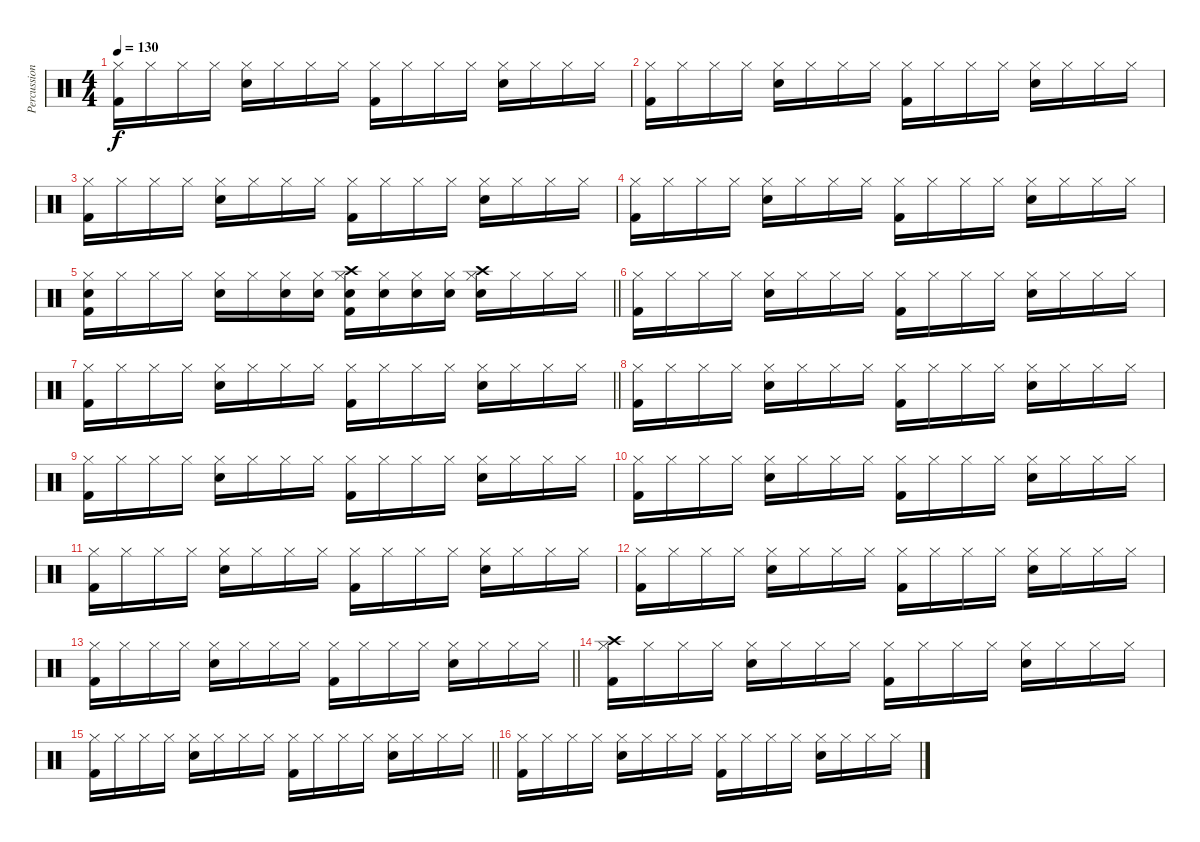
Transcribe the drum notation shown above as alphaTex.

\track ("Percussion" "Percussion") {instrument percussion}
\staff {score}
\articulation defaults
\ts (4 4)
\tempo 130
\clef neutral
\ks c
("Kick (hit) 2" "Hi-Hat (closed)").16{dy f} "Hi-Hat (closed)".16 "Hi-Hat (closed)".16 "Hi-Hat (closed)".16 ("Snare (hit) 2" "Hi-Hat (closed)").16 "Hi-Hat (closed)".16 "Hi-Hat (closed)".16 "Hi-Hat (closed)".16 ("Kick (hit) 2" "Hi-Hat (closed)").16 "Hi-Hat (closed)".16 "Hi-Hat (closed)".16 "Hi-Hat (closed)".16 ("Snare (hit) 2" "Hi-Hat (closed)").16 "Hi-Hat (closed)".16 "Hi-Hat (closed)".16 "Hi-Hat (closed)".16 |
("Hi-Hat (closed)" "Kick (hit) 2").16 "Hi-Hat (closed)".16 "Hi-Hat (closed)".16 "Hi-Hat (closed)".16 ("Snare (hit) 2" "Hi-Hat (closed)").16 "Hi-Hat (closed)".16 "Hi-Hat (closed)".16 "Hi-Hat (closed)".16 ("Kick (hit) 2" "Hi-Hat (closed)").16 "Hi-Hat (closed)".16 "Hi-Hat (closed)".16 "Hi-Hat (closed)".16 ("Snare (hit) 2" "Hi-Hat (closed)").16 "Hi-Hat (closed)".16 "Hi-Hat (closed)".16 "Hi-Hat (closed)".16 |
("Hi-Hat (closed)" "Kick (hit) 2").16 "Hi-Hat (closed)".16 "Hi-Hat (closed)".16 "Hi-Hat (closed)".16 ("Snare (hit) 2" "Hi-Hat (closed)").16 "Hi-Hat (closed)".16 "Hi-Hat (closed)".16 "Hi-Hat (closed)".16 ("Hi-Hat (closed)" "Kick (hit) 2").16 "Hi-Hat (closed)".16 "Hi-Hat (closed)".16 "Hi-Hat (closed)".16 ("Snare (hit) 2" "Hi-Hat (closed)").16 "Hi-Hat (closed)".16 "Hi-Hat (closed)".16 "Hi-Hat (closed)".16 |
("Hi-Hat (closed)" "Kick (hit) 2").16 "Hi-Hat (closed)".16 "Hi-Hat (closed)".16 "Hi-Hat (closed)".16 ("Hi-Hat (closed)" "Snare (hit) 2").16 "Hi-Hat (closed)".16 "Hi-Hat (closed)".16 "Hi-Hat (closed)".16 ("Kick (hit) 2" "Hi-Hat (closed)").16 "Hi-Hat (closed)".16 "Hi-Hat (closed)".16 "Hi-Hat (closed)".16 ("Hi-Hat (closed)" "Snare (hit) 2").16 "Hi-Hat (closed)".16 "Hi-Hat (closed)".16 "Hi-Hat (closed)".16 |
\barLineRight lightlight
("Snare (hit) 2" "Hi-Hat (closed)" "Kick (hit) 2").16 "Hi-Hat (closed)".16 "Hi-Hat (closed)".16 "Hi-Hat (closed)".16 ("Snare (hit) 2" "Hi-Hat (closed)").16 "Hi-Hat (closed)".16 ("Hi-Hat (closed)" "Snare (hit) 2").16 ("Hi-Hat (closed)" "Snare (hit) 2").16 ("Crash high (hit)" "Kick (hit) 2" "Hi-Hat (closed)" "Snare (hit) 2").16 ("Snare (hit) 2" "Hi-Hat (closed)").16 ("Hi-Hat (closed)" "Snare (hit) 2").16 ("Hi-Hat (closed)" "Snare (hit) 2").16 ("Snare (hit) 2" "Crash high (hit)" "Hi-Hat (closed)").16 "Hi-Hat (closed)".16 "Hi-Hat (closed)".16 "Hi-Hat (closed)".16 |
("Kick (hit) 2" "Hi-Hat (closed)").16 "Hi-Hat (closed)".16 "Hi-Hat (closed)".16 "Hi-Hat (closed)".16 ("Hi-Hat (closed)" "Snare (hit) 2").16 "Hi-Hat (closed)".16 "Hi-Hat (closed)".16 "Hi-Hat (closed)".16 ("Kick (hit) 2" "Hi-Hat (closed)").16 "Hi-Hat (closed)".16 "Hi-Hat (closed)".16 "Hi-Hat (closed)".16 ("Hi-Hat (closed)" "Snare (hit) 2").16 "Hi-Hat (closed)".16 "Hi-Hat (closed)".16 "Hi-Hat (closed)".16 |
\barLineRight lightlight
("Kick (hit) 2" "Hi-Hat (closed)").16 "Hi-Hat (closed)".16 "Hi-Hat (closed)".16 "Hi-Hat (closed)".16 ("Snare (hit) 2" "Hi-Hat (closed)").16 "Hi-Hat (closed)".16 "Hi-Hat (closed)".16 "Hi-Hat (closed)".16 ("Hi-Hat (closed)" "Kick (hit) 2").16 "Hi-Hat (closed)".16 "Hi-Hat (closed)".16 "Hi-Hat (closed)".16 ("Hi-Hat (closed)" "Snare (hit) 2").16 "Hi-Hat (closed)".16 "Hi-Hat (closed)".16 "Hi-Hat (closed)".16 |
("Kick (hit) 2" "Hi-Hat (closed)").16 "Hi-Hat (closed)".16 "Hi-Hat (closed)".16 "Hi-Hat (closed)".16 ("Snare (hit) 2" "Hi-Hat (closed)").16 "Hi-Hat (closed)".16 "Hi-Hat (closed)".16 "Hi-Hat (closed)".16 ("Hi-Hat (closed)" "Kick (hit) 2").16 "Hi-Hat (closed)".16 "Hi-Hat (closed)".16 "Hi-Hat (closed)".16 ("Hi-Hat (closed)" "Snare (hit) 2").16 "Hi-Hat (closed)".16 "Hi-Hat (closed)".16 "Hi-Hat (closed)".16 |
("Kick (hit) 2" "Hi-Hat (closed)").16 "Hi-Hat (closed)".16 "Hi-Hat (closed)".16 "Hi-Hat (closed)".16 ("Hi-Hat (closed)" "Snare (hit) 2").16 "Hi-Hat (closed)".16 "Hi-Hat (closed)".16 "Hi-Hat (closed)".16 ("Kick (hit) 2" "Hi-Hat (closed)").16 "Hi-Hat (closed)".16 "Hi-Hat (closed)".16 "Hi-Hat (closed)".16 ("Hi-Hat (closed)" "Snare (hit) 2").16 "Hi-Hat (closed)".16 "Hi-Hat (closed)".16 "Hi-Hat (closed)".16 |
("Hi-Hat (closed)" "Kick (hit) 2").16 "Hi-Hat (closed)".16 "Hi-Hat (closed)".16 "Hi-Hat (closed)".16 ("Snare (hit) 2" "Hi-Hat (closed)").16 "Hi-Hat (closed)".16 "Hi-Hat (closed)".16 "Hi-Hat (closed)".16 ("Hi-Hat (closed)" "Kick (hit) 2").16 "Hi-Hat (closed)".16 "Hi-Hat (closed)".16 "Hi-Hat (closed)".16 ("Snare (hit) 2" "Hi-Hat (closed)").16 "Hi-Hat (closed)".16 "Hi-Hat (closed)".16 "Hi-Hat (closed)".16 |
("Hi-Hat (closed)" "Kick (hit) 2").16 "Hi-Hat (closed)".16 "Hi-Hat (closed)".16 "Hi-Hat (closed)".16 ("Hi-Hat (closed)" "Snare (hit) 2").16 "Hi-Hat (closed)".16 "Hi-Hat (closed)".16 "Hi-Hat (closed)".16 ("Kick (hit) 2" "Hi-Hat (closed)").16 "Hi-Hat (closed)".16 "Hi-Hat (closed)".16 "Hi-Hat (closed)".16 ("Hi-Hat (closed)" "Snare (hit) 2").16 "Hi-Hat (closed)".16 "Hi-Hat (closed)".16 "Hi-Hat (closed)".16 |
("Kick (hit) 2" "Hi-Hat (closed)").16 "Hi-Hat (closed)".16 "Hi-Hat (closed)".16 "Hi-Hat (closed)".16 ("Snare (hit) 2" "Hi-Hat (closed)").16 "Hi-Hat (closed)".16 "Hi-Hat (closed)".16 "Hi-Hat (closed)".16 ("Hi-Hat (closed)" "Kick (hit) 2").16 "Hi-Hat (closed)".16 "Hi-Hat (closed)".16 "Hi-Hat (closed)".16 ("Hi-Hat (closed)" "Snare (hit) 2").16 "Hi-Hat (closed)".16 "Hi-Hat (closed)".16 "Hi-Hat (closed)".16 |
\barLineRight lightlight
("Kick (hit) 2" "Hi-Hat (closed)").16 "Hi-Hat (closed)".16 "Hi-Hat (closed)".16 "Hi-Hat (closed)".16 ("Snare (hit) 2" "Hi-Hat (closed)").16 "Hi-Hat (closed)".16 "Hi-Hat (closed)".16 "Hi-Hat (closed)".16 ("Kick (hit) 2" "Hi-Hat (closed)").16 "Hi-Hat (closed)".16 "Hi-Hat (closed)".16 "Hi-Hat (closed)".16 ("Hi-Hat (closed)" "Snare (hit) 2").16 "Hi-Hat (closed)".16 "Hi-Hat (closed)".16 "Hi-Hat (closed)".16 |
("Kick (hit) 2" "Hi-Hat (closed)" "Crash high (hit)").16 "Hi-Hat (closed)".16 "Hi-Hat (closed)".16 "Hi-Hat (closed)".16 ("Snare (hit) 2" "Hi-Hat (closed)").16 "Hi-Hat (closed)".16 "Hi-Hat (closed)".16 "Hi-Hat (closed)".16 ("Kick (hit) 2" "Hi-Hat (closed)").16 "Hi-Hat (closed)".16 "Hi-Hat (closed)".16 "Hi-Hat (closed)".16 ("Hi-Hat (closed)" "Snare (hit) 2").16 "Hi-Hat (closed)".16 "Hi-Hat (closed)".16 "Hi-Hat (closed)".16 |
\barLineRight lightlight
("Kick (hit) 2" "Hi-Hat (closed)").16 "Hi-Hat (closed)".16 "Hi-Hat (closed)".16 "Hi-Hat (closed)".16 ("Hi-Hat (closed)" "Snare (hit) 2").16 "Hi-Hat (closed)".16 "Hi-Hat (closed)".16 "Hi-Hat (closed)".16 ("Hi-Hat (closed)" "Kick (hit) 2").16 "Hi-Hat (closed)".16 "Hi-Hat (closed)".16 "Hi-Hat (closed)".16 ("Hi-Hat (closed)" "Snare (hit) 2").16 "Hi-Hat (closed)".16 "Hi-Hat (closed)".16 "Hi-Hat (closed)".16 |
("Kick (hit) 2" "Hi-Hat (closed)").16 "Hi-Hat (closed)".16 "Hi-Hat (closed)".16 "Hi-Hat (closed)".16 ("Hi-Hat (closed)" "Snare (hit) 2").16 "Hi-Hat (closed)".16 "Hi-Hat (closed)".16 "Hi-Hat (closed)".16 ("Hi-Hat (closed)" "Kick (hit) 2").16 "Hi-Hat (closed)".16 "Hi-Hat (closed)".16 "Hi-Hat (closed)".16 ("Hi-Hat (closed)" "Snare (hit) 2").16 "Hi-Hat (closed)".16 "Hi-Hat (closed)".16 "Hi-Hat (closed)".16
